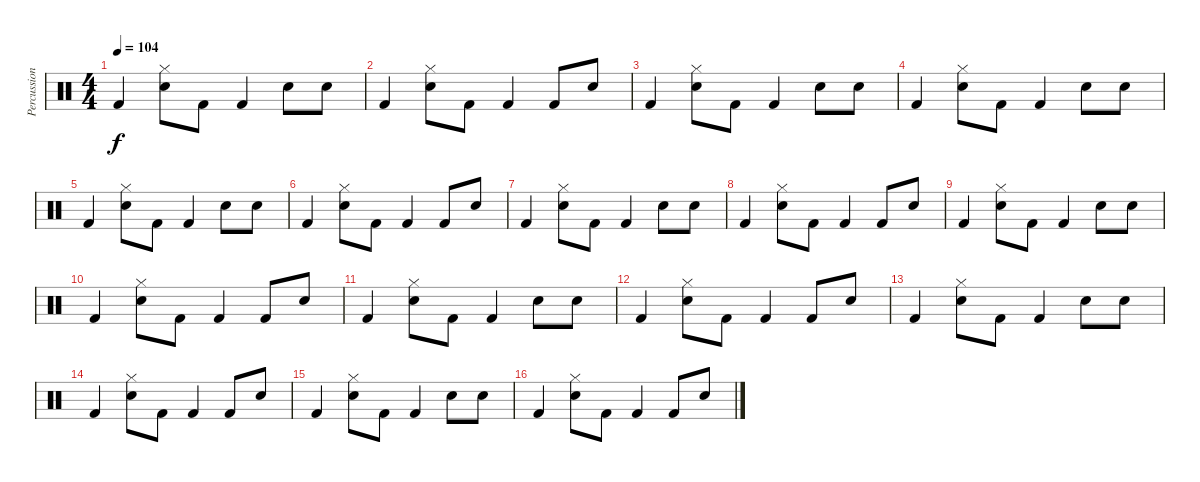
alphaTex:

\track ("Percussions" "Percussion") {instrument percussion}
\staff {score}
\articulation defaults
\ts (4 4)
\tempo 104
\clef neutral
\ks c "Kick (hit) 2".4{dy f}
("Hi-Hat (closed)" "Snare (hit) 2").8 "Kick (hit) 2".8 "Kick (hit) 2".4 "Snare (hit) 2".8 "Electric Snare (hit)".8 |
"Kick (hit) 2".4 ("Hi-Hat (closed)" "Snare (hit) 2").8 "Kick (hit) 2".8 "Kick (hit) 2".4 "Kick (hit) 2".8 "Electric Snare (hit)".8 |
"Kick (hit) 2".4 ("Hi-Hat (closed)" "Snare (hit) 2").8 "Kick (hit) 2".8 "Kick (hit) 2".4 "Snare (hit) 2".8 "Electric Snare (hit)".8 |
"Kick (hit) 2".4 ("Hi-Hat (closed)" "Snare (hit) 2").8 "Kick (hit) 2".8 "Kick (hit) 2".4 "Snare (hit) 2".8 "Electric Snare (hit)".8 |
"Kick (hit) 2".4 ("Hi-Hat (closed)" "Snare (hit) 2").8 "Kick (hit) 2".8 "Kick (hit) 2".4 "Snare (hit) 2".8 "Electric Snare (hit)".8 |
"Kick (hit) 2".4 ("Hi-Hat (closed)" "Snare (hit) 2").8 "Kick (hit) 2".8 "Kick (hit) 2".4 "Kick (hit) 2".8 "Electric Snare (hit)".8 |
"Kick (hit) 2".4 ("Hi-Hat (closed)" "Snare (hit) 2").8 "Kick (hit) 2".8 "Kick (hit) 2".4 "Snare (hit) 2".8 "Electric Snare (hit)".8 |
"Kick (hit) 2".4 ("Hi-Hat (closed)" "Snare (hit) 2").8 "Kick (hit) 2".8 "Kick (hit) 2".4 "Kick (hit) 2".8 "Electric Snare (hit)".8 |
"Kick (hit) 2".4 ("Hi-Hat (closed)" "Snare (hit) 2").8 "Kick (hit) 2".8 "Kick (hit) 2".4 "Snare (hit) 2".8 "Electric Snare (hit)".8 |
"Kick (hit) 2".4 ("Hi-Hat (closed)" "Snare (hit) 2").8 "Kick (hit) 2".8 "Kick (hit) 2".4 "Kick (hit) 2".8 "Electric Snare (hit)".8 |
"Kick (hit) 2".4 ("Hi-Hat (closed)" "Snare (hit) 2").8 "Kick (hit) 2".8 "Kick (hit) 2".4 "Snare (hit) 2".8 "Electric Snare (hit)".8 |
"Kick (hit) 2".4 ("Hi-Hat (closed)" "Snare (hit) 2").8 "Kick (hit) 2".8 "Kick (hit) 2".4 "Kick (hit) 2".8 "Electric Snare (hit)".8 |
"Kick (hit) 2".4 ("Hi-Hat (closed)" "Snare (hit) 2").8 "Kick (hit) 2".8 "Kick (hit) 2".4 "Snare (hit) 2".8 "Electric Snare (hit)".8 |
"Kick (hit) 2".4 ("Hi-Hat (closed)" "Snare (hit) 2").8 "Kick (hit) 2".8 "Kick (hit) 2".4 "Kick (hit) 2".8 "Electric Snare (hit)".8 |
"Kick (hit) 2".4 ("Hi-Hat (closed)" "Snare (hit) 2").8 "Kick (hit) 2".8 "Kick (hit) 2".4 "Snare (hit) 2".8 "Electric Snare (hit)".8 |
"Kick (hit) 2".4 ("Hi-Hat (closed)" "Snare (hit) 2").8 "Kick (hit) 2".8 "Kick (hit) 2".4 "Kick (hit) 2".8 "Electric Snare (hit)".8
